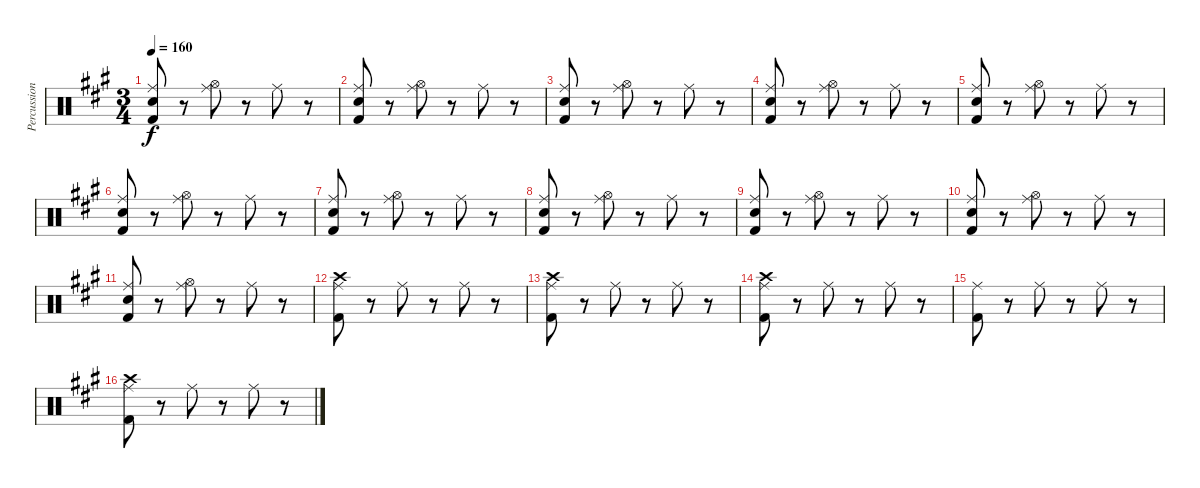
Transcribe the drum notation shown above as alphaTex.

\track ("Percussioni" "Percussion") {instrument percussion}
\staff {score}
\articulation defaults
\ts (3 4)
\tempo 160
\clef neutral
\ks a
("Electric Snare (hit)" "Ride (middle)" "Kick (hit) 2").8{dy f} r.8 ("Hi-Hat (open)" "Ride (middle)").8 r.8 "Ride (middle)".8 r.8 |
("Electric Snare (hit)" "Ride (middle)" "Kick (hit) 2").8 r.8 ("Hi-Hat (open)" "Ride (middle)").8 r.8 "Ride (middle)".8 r.8 |
("Electric Snare (hit)" "Ride (middle)" "Kick (hit) 2").8 r.8 ("Hi-Hat (open)" "Ride (middle)").8 r.8 "Ride (middle)".8 r.8 |
("Electric Snare (hit)" "Ride (middle)" "Kick (hit) 2").8 r.8 ("Hi-Hat (open)" "Ride (middle)").8 r.8 "Ride (middle)".8 r.8 |
("Electric Snare (hit)" "Ride (middle)" "Kick (hit) 2").8 r.8 ("Hi-Hat (open)" "Ride (middle)").8 r.8 "Ride (middle)".8 r.8 |
("Electric Snare (hit)" "Ride (middle)" "Kick (hit) 2").8 r.8 ("Hi-Hat (open)" "Ride (middle)").8 r.8 "Ride (middle)".8 r.8 |
("Electric Snare (hit)" "Ride (middle)" "Kick (hit) 2").8 r.8 ("Hi-Hat (open)" "Ride (middle)").8 r.8 "Ride (middle)".8 r.8 |
("Electric Snare (hit)" "Ride (middle)" "Kick (hit) 2").8 r.8 ("Hi-Hat (open)" "Ride (middle)").8 r.8 "Ride (middle)".8 r.8 |
("Electric Snare (hit)" "Ride (middle)" "Kick (hit) 2").8 r.8 ("Hi-Hat (open)" "Ride (middle)").8 r.8 "Ride (middle)".8 r.8 |
("Electric Snare (hit)" "Ride (middle)" "Kick (hit) 2").8 r.8 ("Hi-Hat (open)" "Ride (middle)").8 r.8 "Ride (middle)".8 r.8 |
("Electric Snare (hit)" "Ride (middle)" "Kick (hit) 2").8 r.8 ("Hi-Hat (open)" "Ride (middle)").8 r.8 "Ride (middle)".8 r.8 |
("Crash high (hit)" "Ride (middle)" "Kick (hit) 2").8 r.8 "Ride (middle)".8 r.8 "Ride (middle)".8 r.8 |
("Crash high (hit)" "Ride (middle)" "Kick (hit) 2").8 r.8 "Ride (middle)".8 r.8 "Ride (middle)".8 r.8 |
("Crash high (hit)" "Ride (middle)" "Kick (hit) 2").8 r.8 "Ride (middle)".8 r.8 "Ride (middle)".8 r.8 |
("Ride (middle)" "Kick (hit) 2").8 r.8 "Ride (middle)".8 r.8 "Ride (middle)".8 r.8 |
("Crash high (hit)" "Ride (middle)" "Kick (hit) 2").8 r.8 "Ride (middle)".8 r.8 "Ride (middle)".8 r.8
